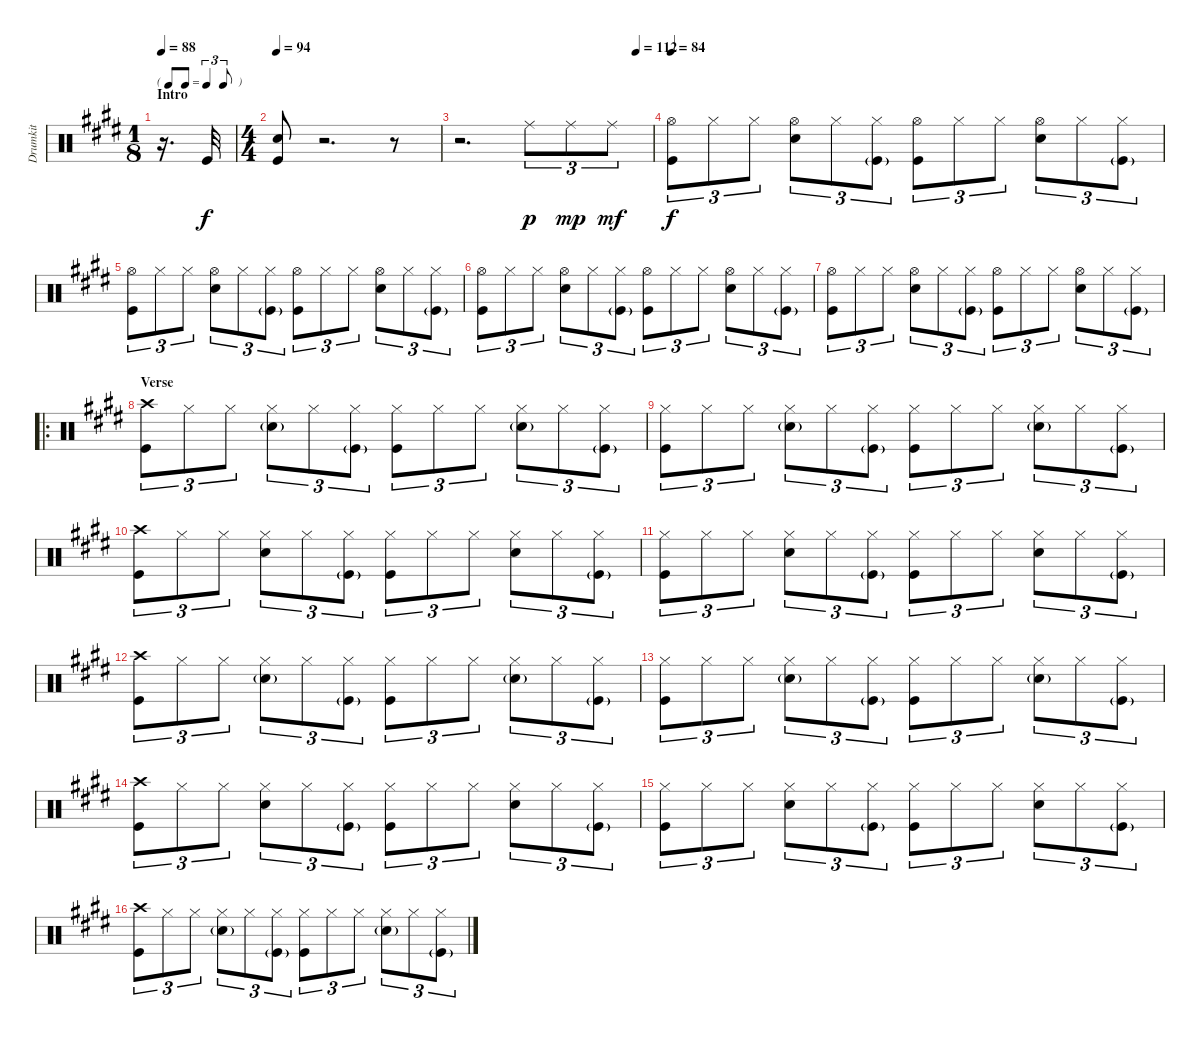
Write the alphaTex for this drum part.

\track ("Drumkit" "Drumkit") {instrument percussion}
\staff {score}
\articulation defaults
\ts (1 8)
\tf triplet8th
\section ("" "Intro")
\tempo 88
\clef neutral
\ks e
r.16{d dy f} "Kick (hit)".32 |
\ts (4 4)
\tempo 94
("Snare (hit) 2" "Kick (hit)").8 r.2{d} r.8 |
\tempo (112 0.9166666666666666)
r.2{d} "Ride (middle)".8{tu (3 2) dy p} "Ride (middle)".8{tu (3 2) dy mp} "Ride (middle)".8{tu (3 2) dy mf} |
\section ("" "")
\tempo 84
("Kick (hit)" "Hi-Hat (open)").8{tu (3 2) dy f} "Hi-Hat (closed)".8{tu (3 2)} "Hi-Hat (closed)".8{tu (3 2)} ("Hi-Hat (open)" "Snare (hit) 2").8{tu (3 2)} "Hi-Hat (closed)".8{tu (3 2)} ("Hi-Hat (closed)" "Kick (hit)"{g}).8{tu (3 2)} ("Kick (hit)" "Hi-Hat (open)").8{tu (3 2)} "Hi-Hat (closed)".8{tu (3 2)} "Hi-Hat (closed)".8{tu (3 2)} ("Snare (hit) 2" "Hi-Hat (open)").8{tu (3 2)} "Hi-Hat (closed)".8{tu (3 2)} ("Hi-Hat (closed)" "Kick (hit)"{g}).8{tu (3 2)} |
("Kick (hit)" "Hi-Hat (open)").8{tu (3 2)} "Hi-Hat (closed)".8{tu (3 2)} "Hi-Hat (closed)".8{tu (3 2)} ("Hi-Hat (open)" "Snare (hit) 2").8{tu (3 2)} "Hi-Hat (closed)".8{tu (3 2)} ("Hi-Hat (closed)" "Kick (hit)"{g}).8{tu (3 2)} ("Kick (hit)" "Hi-Hat (open)").8{tu (3 2)} "Hi-Hat (closed)".8{tu (3 2)} "Hi-Hat (closed)".8{tu (3 2)} ("Snare (hit) 2" "Hi-Hat (open)").8{tu (3 2)} "Hi-Hat (closed)".8{tu (3 2)} ("Hi-Hat (closed)" "Kick (hit)"{g}).8{tu (3 2)} |
("Kick (hit)" "Hi-Hat (open)").8{tu (3 2)} "Hi-Hat (closed)".8{tu (3 2)} "Hi-Hat (closed)".8{tu (3 2)} ("Hi-Hat (open)" "Snare (hit) 2").8{tu (3 2)} "Hi-Hat (closed)".8{tu (3 2)} ("Hi-Hat (closed)" "Kick (hit)"{g}).8{tu (3 2)} ("Kick (hit)" "Hi-Hat (open)").8{tu (3 2)} "Hi-Hat (closed)".8{tu (3 2)} "Hi-Hat (closed)".8{tu (3 2)} ("Snare (hit) 2" "Hi-Hat (open)").8{tu (3 2)} "Hi-Hat (closed)".8{tu (3 2)} ("Hi-Hat (closed)" "Kick (hit)"{g}).8{tu (3 2)} |
("Kick (hit)" "Hi-Hat (open)").8{tu (3 2)} "Hi-Hat (closed)".8{tu (3 2)} "Hi-Hat (closed)".8{tu (3 2)} ("Hi-Hat (open)" "Snare (hit) 2").8{tu (3 2)} "Hi-Hat (closed)".8{tu (3 2)} ("Hi-Hat (closed)" "Kick (hit)"{g}).8{tu (3 2)} ("Kick (hit)" "Hi-Hat (open)").8{tu (3 2)} "Hi-Hat (closed)".8{tu (3 2)} "Hi-Hat (closed)".8{tu (3 2)} ("Snare (hit) 2" "Hi-Hat (open)").8{tu (3 2)} "Hi-Hat (closed)".8{tu (3 2)} ("Hi-Hat (closed)" "Kick (hit)"{g}).8{tu (3 2)} |
\ro
\section ("" "Verse")
("Kick (hit)" "Crash high (hit)").8{tu (3 2)} "Hi-Hat (closed)".8{tu (3 2)} "Hi-Hat (closed)".8{tu (3 2)} ("Hi-Hat (closed)" "Snare (hit) 2"{g}).8{tu (3 2)} "Hi-Hat (closed)".8{tu (3 2)} ("Hi-Hat (closed)" "Kick (hit)"{g}).8{tu (3 2)} ("Kick (hit)" "Hi-Hat (closed)").8{tu (3 2)} "Hi-Hat (closed)".8{tu (3 2)} "Hi-Hat (closed)".8{tu (3 2)} ("Snare (hit) 2"{g} "Hi-Hat (closed)").8{tu (3 2)} "Hi-Hat (closed)".8{tu (3 2)} ("Kick (hit)"{g} "Hi-Hat (closed)").8{tu (3 2)} |
("Kick (hit)" "Hi-Hat (closed)").8{tu (3 2)} "Hi-Hat (closed)".8{tu (3 2)} "Hi-Hat (closed)".8{tu (3 2)} ("Hi-Hat (closed)" "Snare (hit) 2"{g}).8{tu (3 2)} "Hi-Hat (closed)".8{tu (3 2)} ("Hi-Hat (closed)" "Kick (hit)"{g}).8{tu (3 2)} ("Kick (hit)" "Hi-Hat (closed)").8{tu (3 2)} "Hi-Hat (closed)".8{tu (3 2)} "Hi-Hat (closed)".8{tu (3 2)} ("Snare (hit) 2"{g} "Hi-Hat (closed)").8{tu (3 2)} "Hi-Hat (closed)".8{tu (3 2)} ("Hi-Hat (closed)" "Kick (hit)"{g}).8{tu (3 2)} |
("Kick (hit)" "Crash high (hit)").8{tu (3 2)} "Hi-Hat (closed)".8{tu (3 2)} "Hi-Hat (closed)".8{tu (3 2)} ("Hi-Hat (closed)" "Snare (hit) 2").8{tu (3 2)} "Hi-Hat (closed)".8{tu (3 2)} ("Hi-Hat (closed)" "Kick (hit)"{g}).8{tu (3 2)} ("Kick (hit)" "Hi-Hat (closed)").8{tu (3 2)} "Hi-Hat (closed)".8{tu (3 2)} "Hi-Hat (closed)".8{tu (3 2)} ("Snare (hit) 2" "Hi-Hat (closed)").8{tu (3 2)} "Hi-Hat (closed)".8{tu (3 2)} ("Hi-Hat (closed)" "Kick (hit)"{g}).8{tu (3 2)} |
("Kick (hit)" "Hi-Hat (closed)").8{tu (3 2)} "Hi-Hat (closed)".8{tu (3 2)} "Hi-Hat (closed)".8{tu (3 2)} ("Hi-Hat (closed)" "Snare (hit) 2").8{tu (3 2)} "Hi-Hat (closed)".8{tu (3 2)} ("Hi-Hat (closed)" "Kick (hit)"{g}).8{tu (3 2)} ("Kick (hit)" "Hi-Hat (closed)").8{tu (3 2)} "Hi-Hat (closed)".8{tu (3 2)} "Hi-Hat (closed)".8{tu (3 2)} ("Snare (hit) 2" "Hi-Hat (closed)").8{tu (3 2)} "Hi-Hat (closed)".8{tu (3 2)} ("Hi-Hat (closed)" "Kick (hit)"{g}).8{tu (3 2)} |
("Kick (hit)" "Crash high (hit)").8{tu (3 2)} "Hi-Hat (closed)".8{tu (3 2)} "Hi-Hat (closed)".8{tu (3 2)} ("Hi-Hat (closed)" "Snare (hit) 2"{g}).8{tu (3 2)} "Hi-Hat (closed)".8{tu (3 2)} ("Hi-Hat (closed)" "Kick (hit)"{g}).8{tu (3 2)} ("Kick (hit)" "Hi-Hat (closed)").8{tu (3 2)} "Hi-Hat (closed)".8{tu (3 2)} "Hi-Hat (closed)".8{tu (3 2)} ("Snare (hit) 2"{g} "Hi-Hat (closed)").8{tu (3 2)} "Hi-Hat (closed)".8{tu (3 2)} ("Hi-Hat (closed)" "Kick (hit)"{g}).8{tu (3 2)} |
("Kick (hit)" "Hi-Hat (closed)").8{tu (3 2)} "Hi-Hat (closed)".8{tu (3 2)} "Hi-Hat (closed)".8{tu (3 2)} ("Hi-Hat (closed)" "Snare (hit) 2"{g}).8{tu (3 2)} "Hi-Hat (closed)".8{tu (3 2)} ("Hi-Hat (closed)" "Kick (hit)"{g}).8{tu (3 2)} ("Kick (hit)" "Hi-Hat (closed)").8{tu (3 2)} "Hi-Hat (closed)".8{tu (3 2)} "Hi-Hat (closed)".8{tu (3 2)} ("Snare (hit) 2"{g} "Hi-Hat (closed)").8{tu (3 2)} "Hi-Hat (closed)".8{tu (3 2)} ("Hi-Hat (closed)" "Kick (hit)"{g}).8{tu (3 2)} |
("Kick (hit)" "Crash high (hit)").8{tu (3 2)} "Hi-Hat (closed)".8{tu (3 2)} "Hi-Hat (closed)".8{tu (3 2)} ("Hi-Hat (closed)" "Snare (hit) 2").8{tu (3 2)} "Hi-Hat (closed)".8{tu (3 2)} ("Hi-Hat (closed)" "Kick (hit)"{g}).8{tu (3 2)} ("Kick (hit)" "Hi-Hat (closed)").8{tu (3 2)} "Hi-Hat (closed)".8{tu (3 2)} "Hi-Hat (closed)".8{tu (3 2)} ("Snare (hit) 2" "Hi-Hat (closed)").8{tu (3 2)} "Hi-Hat (closed)".8{tu (3 2)} ("Hi-Hat (closed)" "Kick (hit)"{g}).8{tu (3 2)} |
("Kick (hit)" "Hi-Hat (closed)").8{tu (3 2)} "Hi-Hat (closed)".8{tu (3 2)} "Hi-Hat (closed)".8{tu (3 2)} ("Hi-Hat (closed)" "Snare (hit) 2").8{tu (3 2)} "Hi-Hat (closed)".8{tu (3 2)} ("Hi-Hat (closed)" "Kick (hit)"{g}).8{tu (3 2)} ("Kick (hit)" "Hi-Hat (closed)").8{tu (3 2)} "Hi-Hat (closed)".8{tu (3 2)} "Hi-Hat (closed)".8{tu (3 2)} ("Snare (hit) 2" "Hi-Hat (closed)").8{tu (3 2)} "Hi-Hat (closed)".8{tu (3 2)} ("Hi-Hat (closed)" "Kick (hit)"{g}).8{tu (3 2)} |
("Kick (hit)" "Crash high (hit)").8{tu (3 2)} "Hi-Hat (closed)".8{tu (3 2)} "Hi-Hat (closed)".8{tu (3 2)} ("Hi-Hat (closed)" "Snare (hit) 2"{g}).8{tu (3 2)} "Hi-Hat (closed)".8{tu (3 2)} ("Hi-Hat (closed)" "Kick (hit)"{g}).8{tu (3 2)} ("Kick (hit)" "Hi-Hat (closed)").8{tu (3 2)} "Hi-Hat (closed)".8{tu (3 2)} "Hi-Hat (closed)".8{tu (3 2)} ("Snare (hit) 2"{g} "Hi-Hat (closed)").8{tu (3 2)} "Hi-Hat (closed)".8{tu (3 2)} ("Hi-Hat (closed)" "Kick (hit)"{g}).8{tu (3 2)}
